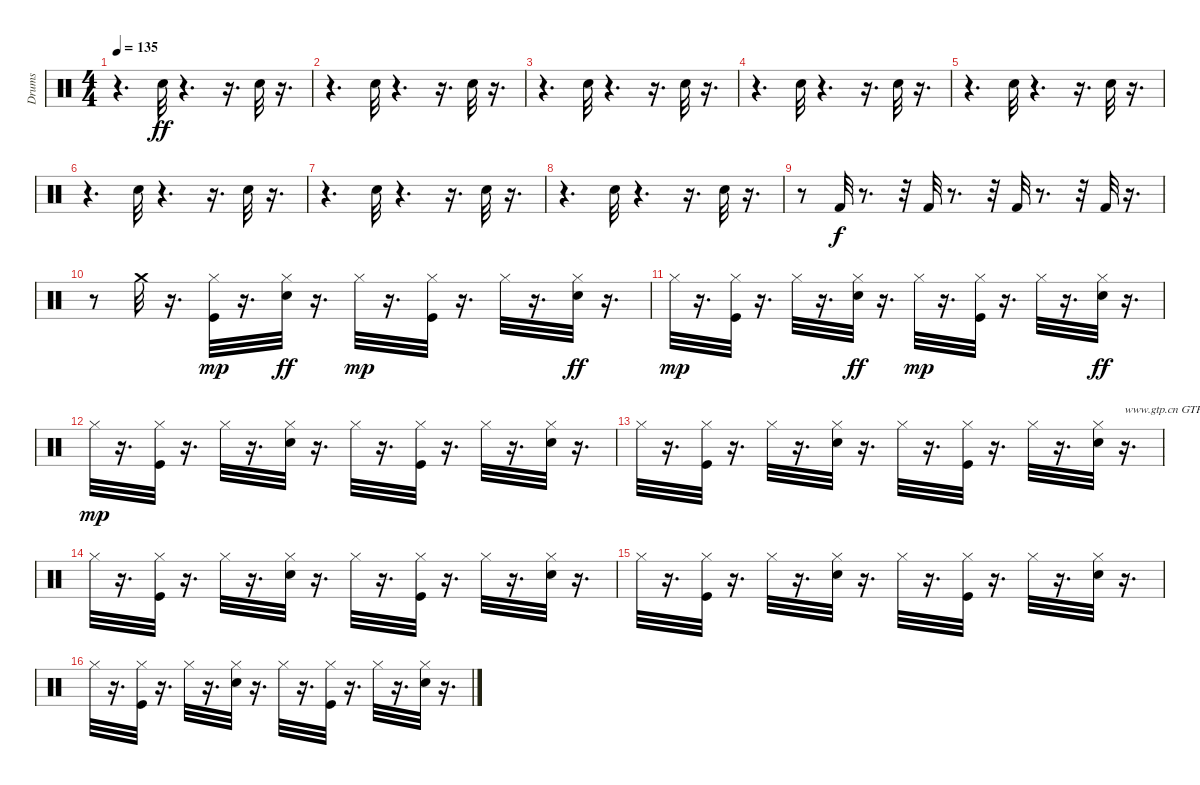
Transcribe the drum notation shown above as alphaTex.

\track ("Drums" "Drums") {instrument percussion}
\staff {score}
\articulation defaults
\ts (4 4)
\tempo 135
\clef neutral
\ks c
r.4{d dy ff} "Snare (hit) 2".32 r.4{d} r.16{d} "Snare (hit) 2".32 r.16{d} |
r.4{d} "Snare (hit) 2".32 r.4{d} r.16{d} "Snare (hit) 2".32 r.16{d} |
r.4{d} "Snare (hit) 2".32 r.4{d} r.16{d} "Snare (hit) 2".32 r.16{d} |
r.4{d} "Snare (hit) 2".32 r.4{d} r.16{d} "Snare (hit) 2".32 r.16{d} |
r.4{d} "Snare (hit) 2".32 r.4{d} r.16{d} "Snare (hit) 2".32 r.16{d} |
r.4{d} "Snare (hit) 2".32 r.4{d} r.16{d} "Snare (hit) 2".32 r.16{d} |
r.4{d} "Snare (hit) 2".32 r.4{d} r.16{d} "Snare (hit) 2".32 r.16{d} |
r.4{d} "Snare (hit) 2".32 r.4{d} r.16{d} "Snare (hit) 2".32 r.16{d} |
r.8 "Kick (hit) 2".32{dy f} r.8{d} r.32 "Kick (hit) 2".32 r.8{d} r.32 "Kick (hit) 2".32 r.8{d} r.32 "Kick (hit) 2".32 r.16{d} |
r.8 "Crash medium (hit)".32 r.16{d} ("Kick (hit)" "Hi-Hat (closed)").32{dy mp} r.16{d} ("Hi-Hat (closed)" "Snare (hit) 2").32{dy ff} r.16{d} "Hi-Hat (closed)".32{dy mp} r.16{d} ("Kick (hit)" "Hi-Hat (closed)").32 r.16{d} "Hi-Hat (closed)".32 r.16{d} ("Hi-Hat (closed)" "Snare (hit) 2").32{dy ff} r.16{d} |
"Hi-Hat (closed)".32{dy mp} r.16{d} ("Kick (hit)" "Hi-Hat (closed)").32 r.16{d} "Hi-Hat (closed)".32 r.16{d} ("Hi-Hat (closed)" "Snare (hit) 2").32{dy ff} r.16{d} "Hi-Hat (closed)".32{dy mp} r.16{d} ("Kick (hit)" "Hi-Hat (closed)").32 r.16{d} "Hi-Hat (closed)".32 r.16{d} ("Hi-Hat (closed)" "Snare (hit) 2").32{dy ff} r.16{d} |
"Hi-Hat (closed)".32{dy mp} r.16{d} ("Kick (hit)" "Hi-Hat (closed)").32 r.16{d} "Hi-Hat (closed)".32 r.16{d} ("Snare (hit) 2" "Hi-Hat (closed)").32 r.16{d} "Hi-Hat (closed)".32 r.16{d} ("Kick (hit)" "Hi-Hat (closed)").32 r.16{d} "Hi-Hat (closed)".32 r.16{d} ("Snare (hit) 2" "Hi-Hat (closed)").32 r.16{d} |
"Hi-Hat (closed)".32 r.16{d} ("Kick (hit)" "Hi-Hat (closed)").32 r.16{d} "Hi-Hat (closed)".32 r.16{d} ("Snare (hit) 2" "Hi-Hat (closed)").32 r.16{d} "Hi-Hat (closed)".32 r.16{d} ("Kick (hit)" "Hi-Hat (closed)").32 r.16{d} "Hi-Hat (closed)".32 r.16{d} ("Snare (hit) 2" "Hi-Hat (closed)").32 r.16{d txt "www.gtp.cn GTP中文网为您提供优秀的谱子"} |
"Hi-Hat (closed)".32 r.16{d} ("Kick (hit)" "Hi-Hat (closed)").32 r.16{d} "Hi-Hat (closed)".32 r.16{d} ("Snare (hit) 2" "Hi-Hat (closed)").32 r.16{d} "Hi-Hat (closed)".32 r.16{d} ("Kick (hit)" "Hi-Hat (closed)").32 r.16{d} "Hi-Hat (closed)".32 r.16{d} ("Snare (hit) 2" "Hi-Hat (closed)").32 r.16{d} |
"Hi-Hat (closed)".32 r.16{d} ("Kick (hit)" "Hi-Hat (closed)").32 r.16{d} "Hi-Hat (closed)".32 r.16{d} ("Snare (hit) 2" "Hi-Hat (closed)").32 r.16{d} "Hi-Hat (closed)".32 r.16{d} ("Kick (hit)" "Hi-Hat (closed)").32 r.16{d} "Hi-Hat (closed)".32 r.16{d} ("Snare (hit) 2" "Hi-Hat (closed)").32 r.16{d} |
"Hi-Hat (closed)".32 r.16{d} ("Kick (hit)" "Hi-Hat (closed)").32 r.16{d} "Hi-Hat (closed)".32 r.16{d} ("Snare (hit) 2" "Hi-Hat (closed)").32 r.16{d} "Hi-Hat (closed)".32 r.16{d} ("Kick (hit)" "Hi-Hat (closed)").32 r.16{d} "Hi-Hat (closed)".32 r.16{d} ("Snare (hit) 2" "Hi-Hat (closed)").32 r.16{d}
